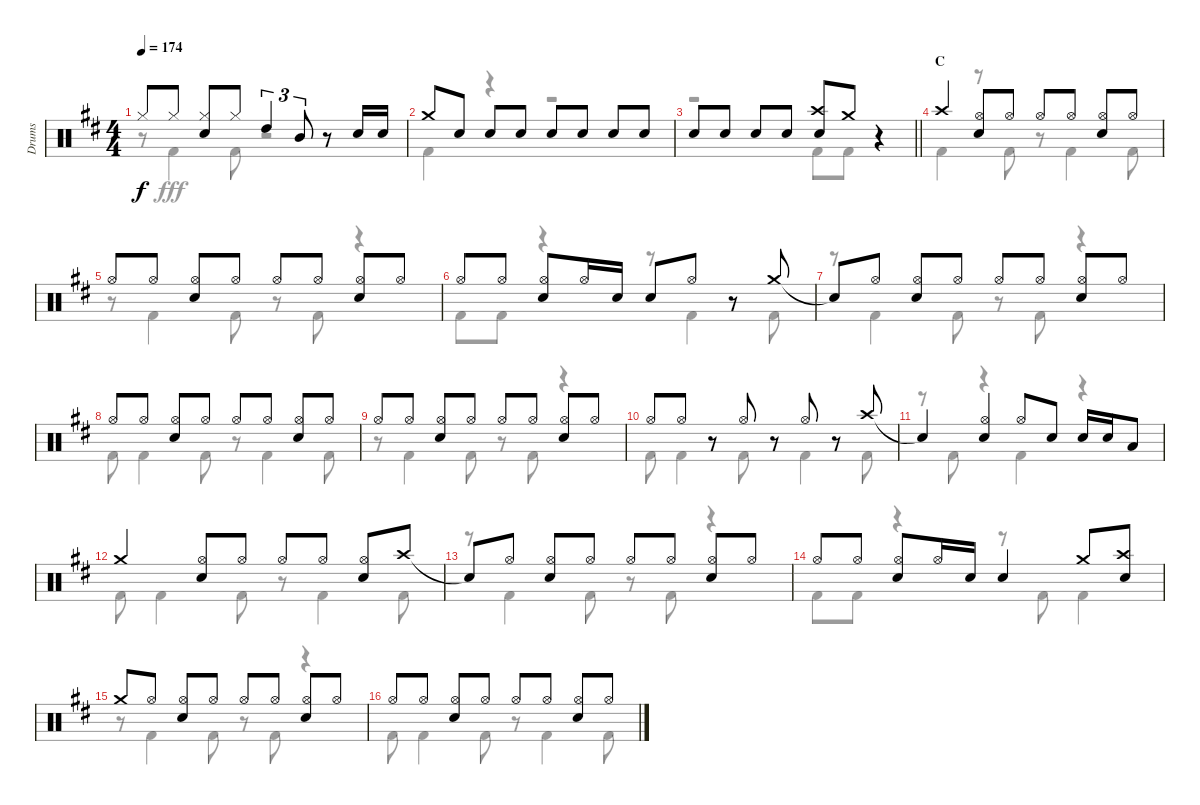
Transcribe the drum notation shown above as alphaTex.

\track ("Drums" "Drums") {instrument percussion}
\staff {score}
\articulation defaults
\voice
\ts (4 4)
\tempo 174
\clef neutral
\ks bminor "Hi-Hat (closed)".8{dy f} "Hi-Hat (closed)".8
("Hi-Hat (closed)" "Snare (hit) 2").8 "Hi-Hat (closed)".8 "High Tom (hit)".4{tu (3 2)} "Mid Tom (hit)".8{tu (3 2)} r.8 "Snare (hit) 2".16 "Snare (hit) 2".16 |
"Crash medium (hit)".8 "Snare (hit) 2".8 "Snare (hit) 2".8 "Snare (hit) 2".8 "Snare (hit) 2".8 "Snare (hit) 2".8 "Snare (hit) 2".8 "Snare (hit) 2".8 |
\barLineRight lightlight "Snare (hit) 2".8 "Snare (hit) 2".8 "Snare (hit) 2".8 "Snare (hit) 2".8
("Crash high (hit)" "Snare (hit) 2").8 "Crash medium (hit)".8 r.4 |
\section ("" "C")
"Crash high (hit)".4 ("Hi-Hat (open)" "Snare (hit) 2").8 "Hi-Hat (open)".8 "Hi-Hat (open)".8 "Hi-Hat (open)".8 ("Hi-Hat (open)" "Snare (hit) 2").8 "Hi-Hat (open)".8 |
"Hi-Hat (open)".8 "Hi-Hat (open)".8 ("Hi-Hat (open)" "Snare (hit) 2").8 "Hi-Hat (open)".8 "Hi-Hat (open)".8 "Hi-Hat (open)".8 ("Hi-Hat (open)" "Snare (hit) 2").8 "Hi-Hat (open)".8 |
"Hi-Hat (open)".8 "Hi-Hat (open)".8 ("Hi-Hat (open)" "Snare (hit) 2").8 "Hi-Hat (open)".16 "Snare (hit) 2".16 "Snare (hit) 2".8 "Hi-Hat (open)".8 r.8 "Crash medium (hit)".8 |
"Snare (hit)"{t}.8 "Hi-Hat (open)".8 ("Hi-Hat (open)" "Snare (hit) 2").8 "Hi-Hat (open)".8 "Hi-Hat (open)".8 "Hi-Hat (open)".8 ("Hi-Hat (open)" "Snare (hit) 2").8 "Hi-Hat (open)".8 |
"Hi-Hat (open)".8 "Hi-Hat (open)".8 ("Hi-Hat (open)" "Snare (hit) 2").8 "Hi-Hat (open)".8 "Hi-Hat (open)".8 "Hi-Hat (open)".8 ("Hi-Hat (open)" "Snare (hit) 2").8 "Hi-Hat (open)".8 |
"Hi-Hat (open)".8 "Hi-Hat (open)".8 ("Hi-Hat (open)" "Snare (hit) 2").8 "Hi-Hat (open)".8 "Hi-Hat (open)".8 "Hi-Hat (open)".8 ("Hi-Hat (open)" "Snare (hit) 2").8 "Hi-Hat (open)".8 |
"Hi-Hat (open)".8 "Hi-Hat (open)".8 r.8 "Hi-Hat (open)".8 r.8 "Hi-Hat (open)".8 r.8 "Crash high (hit)".8 |
"Snare (hit)"{t}.4 ("Hi-Hat (open)" "Snare (hit) 2").4 "Hi-Hat (open)".8 "Snare (hit) 2".8 "Snare (hit) 2".16 "Snare (hit) 2".16 "Low Tom (hit)".8 |
"Crash medium (hit)".4 ("Hi-Hat (open)" "Snare (hit) 2").8 "Hi-Hat (open)".8 "Hi-Hat (open)".8 "Hi-Hat (open)".8 ("Hi-Hat (open)" "Snare (hit) 2").8 "Crash high (hit)".8 |
"Snare (hit)"{t}.8 "Hi-Hat (open)".8 ("Hi-Hat (open)" "Snare (hit) 2").8 "Hi-Hat (open)".8 "Hi-Hat (open)".8 "Hi-Hat (open)".8 ("Hi-Hat (open)" "Snare (hit) 2").8 "Hi-Hat (open)".8 |
"Hi-Hat (open)".8 "Hi-Hat (open)".8 ("Hi-Hat (open)" "Snare (hit) 2").8 "Hi-Hat (open)".16 "Snare (hit) 2".16 "Snare (hit) 2".4 "Crash medium (hit)".8 ("Crash high (hit)" "Snare (hit) 2").8 |
"Crash medium (hit)".8 "Hi-Hat (open)".8 ("Hi-Hat (open)" "Snare (hit) 2").8 "Hi-Hat (open)".8 "Hi-Hat (open)".8 "Hi-Hat (open)".8 ("Hi-Hat (open)" "Snare (hit) 2").8 "Hi-Hat (open)".8 |
"Hi-Hat (open)".8 "Hi-Hat (open)".8 ("Hi-Hat (open)" "Snare (hit) 2").8 "Hi-Hat (open)".8 "Hi-Hat (open)".8 "Hi-Hat (open)".8 ("Hi-Hat (open)" "Snare (hit) 2").8 "Hi-Hat (open)".8
\voice
\clef neutral
\ottava regular
\simile none
\ks bminor
r.8{dy fff} "Kick (hit) 2".4 "Kick (hit) 2".8 r.2 |
"Kick (hit) 2".4 r.4 r.2 |
\barLineRight lightlight
r.2 "Kick (hit) 2".8 "Kick (hit) 2".8 r.4 |
"Kick (hit) 2".4 r.8 "Kick (hit) 2".8 r.8 "Kick (hit) 2".4 "Kick (hit) 2".8 |
r.8 "Kick (hit) 2".4 "Kick (hit) 2".8 r.8 "Kick (hit) 2".8 r.4 |
"Kick (hit) 2".8 "Kick (hit) 2".8 r.4 r.8 "Kick (hit) 2".4 "Kick (hit) 2".8 |
r.8 "Kick (hit) 2".4 "Kick (hit) 2".8 r.8 "Kick (hit) 2".8 r.4 |
"Kick (hit) 2".8 "Kick (hit) 2".4 "Kick (hit) 2".8 r.8 "Kick (hit) 2".4 "Kick (hit) 2".8 |
r.8 "Kick (hit) 2".4 "Kick (hit) 2".8 r.8 "Kick (hit) 2".8 r.4 |
"Kick (hit) 2".8 "Kick (hit) 2".4 "Kick (hit) 2".8 r.8 "Kick (hit) 2".4 "Kick (hit) 2".8 |
r.8 "Kick (hit) 2".8 r.4 "Kick (hit) 2".4 r.4 |
"Kick (hit) 2".8 "Kick (hit) 2".4 "Kick (hit) 2".8 r.8 "Kick (hit) 2".4 "Kick (hit) 2".8 |
r.8 "Kick (hit) 2".4 "Kick (hit) 2".8 r.8 "Kick (hit) 2".8 r.4 |
"Kick (hit) 2".8 "Kick (hit) 2".8 r.4 r.8 "Kick (hit) 2".8 "Kick (hit) 2".4 |
r.8 "Kick (hit) 2".4 "Kick (hit) 2".8 r.8 "Kick (hit) 2".8 r.4 |
"Kick (hit) 2".8 "Kick (hit) 2".4 "Kick (hit) 2".8 r.8 "Kick (hit) 2".4 "Kick (hit) 2".8
